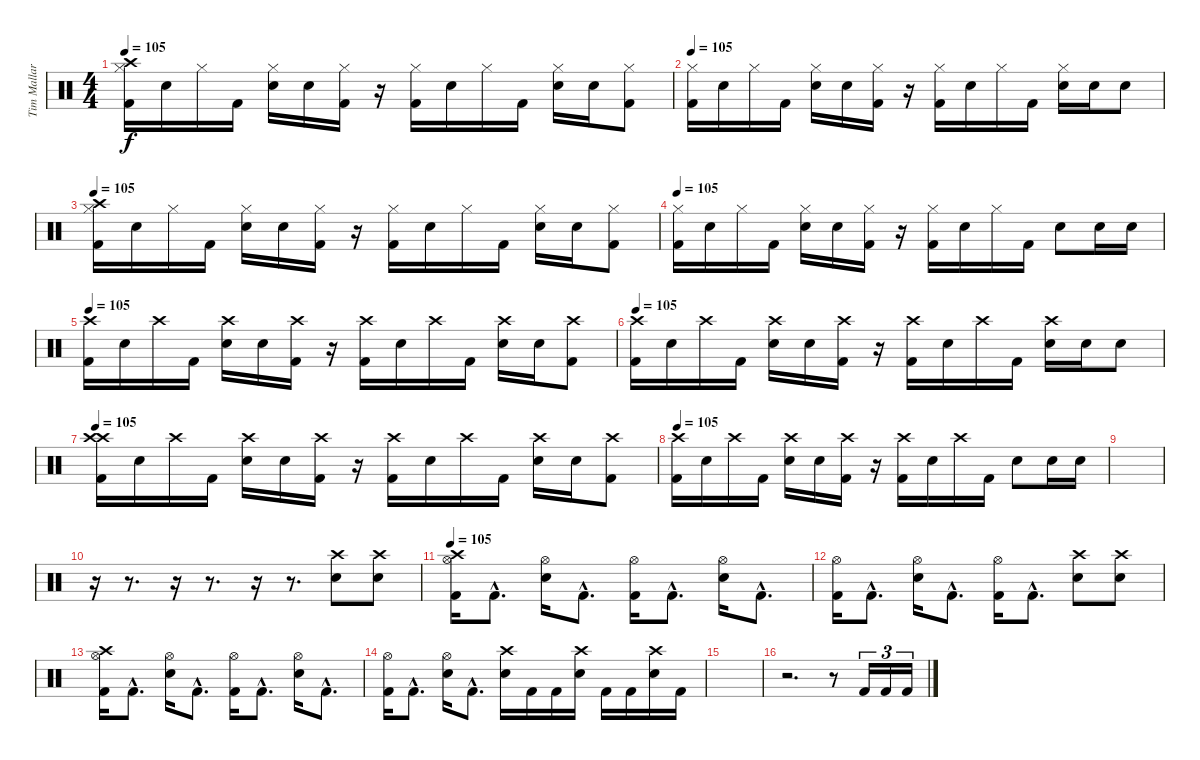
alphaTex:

\track ("Tim Mallare" "Tim Mallar") {instrument percussion}
\staff {score}
\articulation defaults
\ts (4 4)
\tempo 105
\clef neutral
\ks c
("Crash high (hit)" "Hi-Hat (closed)" "Kick (hit) 2").16{dy f} "Electric Snare (hit)".16 "Hi-Hat (closed)".16 "Kick (hit) 2".16 ("Hi-Hat (closed)" "Electric Snare (hit)").16 "Electric Snare (hit)".16 ("Hi-Hat (closed)" "Kick (hit) 2").16 r.16 ("Hi-Hat (closed)" "Kick (hit) 2").16 "Electric Snare (hit)".16 "Hi-Hat (closed)".16 "Kick (hit) 2".16 ("Hi-Hat (closed)" "Electric Snare (hit)").16 "Electric Snare (hit)".16 ("Hi-Hat (closed)" "Kick (hit) 2").8 |
\tempo 105
("Hi-Hat (closed)" "Kick (hit) 2").16 "Electric Snare (hit)".16 "Hi-Hat (closed)".16 "Kick (hit) 2".16 ("Hi-Hat (closed)" "Electric Snare (hit)").16 "Electric Snare (hit)".16 ("Hi-Hat (closed)" "Kick (hit) 2").16 r.16 ("Hi-Hat (closed)" "Kick (hit) 2").16 "Electric Snare (hit)".16 "Hi-Hat (closed)".16 "Kick (hit) 2".16 ("Hi-Hat (closed)" "Electric Snare (hit)").16 "Electric Snare (hit)".16 "Electric Snare (hit)".8 |
\tempo 105
("Crash high (hit)" "Hi-Hat (closed)" "Kick (hit) 2").16 "Electric Snare (hit)".16 "Hi-Hat (closed)".16 "Kick (hit) 2".16 ("Hi-Hat (closed)" "Electric Snare (hit)").16 "Electric Snare (hit)".16 ("Hi-Hat (closed)" "Kick (hit) 2").16 r.16 ("Hi-Hat (closed)" "Kick (hit) 2").16 "Electric Snare (hit)".16 "Hi-Hat (closed)".16 "Kick (hit) 2".16 ("Hi-Hat (closed)" "Electric Snare (hit)").16 "Electric Snare (hit)".16 ("Hi-Hat (closed)" "Kick (hit) 2").8 |
\tempo 105
("Hi-Hat (closed)" "Kick (hit) 2").16 "Electric Snare (hit)".16 "Hi-Hat (closed)".16 "Kick (hit) 2".16 ("Hi-Hat (closed)" "Electric Snare (hit)").16 "Electric Snare (hit)".16 ("Hi-Hat (closed)" "Kick (hit) 2").16 r.16 ("Hi-Hat (closed)" "Kick (hit) 2").16 "Electric Snare (hit)".16 "Hi-Hat (closed)".16 "Kick (hit) 2".16 "Electric Snare (hit)".8 "Electric Snare (hit)".16 "Electric Snare (hit)".16 |
\tempo 105
("Crash high (hit)" "Kick (hit) 2").16 "Electric Snare (hit)".16 "Crash high (hit)".16 "Kick (hit) 2".16 ("Crash high (hit)" "Electric Snare (hit)").16 "Electric Snare (hit)".16 ("Crash high (hit)" "Kick (hit) 2").16 r.16 ("Crash high (hit)" "Kick (hit) 2").16 "Electric Snare (hit)".16 "Crash high (hit)".16 "Kick (hit) 2".16 ("Crash high (hit)" "Electric Snare (hit)").16 "Electric Snare (hit)".16 ("Crash high (hit)" "Kick (hit) 2").8 |
\tempo 105
("Crash high (hit)" "Kick (hit) 2").16 "Electric Snare (hit)".16 "Crash high (hit)".16 "Kick (hit) 2".16 ("Crash high (hit)" "Electric Snare (hit)").16 "Electric Snare (hit)".16 ("Crash high (hit)" "Kick (hit) 2").16 r.16 ("Crash high (hit)" "Kick (hit) 2").16 "Electric Snare (hit)".16 "Crash high (hit)".16 "Kick (hit) 2".16 ("Crash high (hit)" "Electric Snare (hit)").16 "Electric Snare (hit)".16 "Electric Snare (hit)".8 |
\tempo 105
("Crash high (hit)" "Crash high (hit)" "Kick (hit) 2").16 "Electric Snare (hit)".16 "Crash high (hit)".16 "Kick (hit) 2".16 ("Crash high (hit)" "Electric Snare (hit)").16 "Electric Snare (hit)".16 ("Crash high (hit)" "Kick (hit) 2").16 r.16 ("Crash high (hit)" "Kick (hit) 2").16 "Electric Snare (hit)".16 "Crash high (hit)".16 "Kick (hit) 2".16 ("Crash high (hit)" "Electric Snare (hit)").16 "Electric Snare (hit)".16 ("Crash high (hit)" "Kick (hit) 2").8 |
\tempo 105
("Crash high (hit)" "Kick (hit) 2").16 "Electric Snare (hit)".16 "Crash high (hit)".16 "Kick (hit) 2".16 ("Crash high (hit)" "Electric Snare (hit)").16 "Electric Snare (hit)".16 ("Crash high (hit)" "Kick (hit) 2").16 r.16 ("Crash high (hit)" "Kick (hit) 2").16 "Electric Snare (hit)".16 "Crash high (hit)".16 "Kick (hit) 2".16 "Electric Snare (hit)".8 "Electric Snare (hit)".16 "Electric Snare (hit)".16 |
|
r.16 r.8{d} r.16 r.8{d} r.16 r.8{d} ("Crash high (hit)" "Electric Snare (hit)").8 ("Crash high (hit)" "Electric Snare (hit)").8 |
\tempo 105
("Crash high (hit)" "Hi-Hat (open)" "Kick (hit) 2").16 "Kick (hit) 2"{hac}.8{d} ("Hi-Hat (open)" "Electric Snare (hit)").16 "Kick (hit) 2"{hac}.8{d} ("Hi-Hat (open)" "Kick (hit) 2").16 "Kick (hit) 2"{hac}.8{d} ("Hi-Hat (open)" "Electric Snare (hit)").16 "Kick (hit) 2"{hac}.8{d} |
("Hi-Hat (open)" "Kick (hit) 2").16 "Kick (hit) 2"{hac}.8{d} ("Hi-Hat (open)" "Electric Snare (hit)").16 "Kick (hit) 2"{hac}.8{d} ("Hi-Hat (open)" "Kick (hit) 2").16 "Kick (hit) 2"{hac}.8{d} ("Crash high (hit)" "Electric Snare (hit)").8 ("Crash high (hit)" "Electric Snare (hit)").8 |
("Crash high (hit)" "Hi-Hat (open)" "Kick (hit) 2").16 "Kick (hit) 2"{hac}.8{d} ("Hi-Hat (open)" "Electric Snare (hit)").16 "Kick (hit) 2"{hac}.8{d} ("Hi-Hat (open)" "Kick (hit) 2").16 "Kick (hit) 2"{hac}.8{d} ("Hi-Hat (open)" "Electric Snare (hit)").16 "Kick (hit) 2"{hac}.8{d} |
("Hi-Hat (open)" "Kick (hit) 2").16 "Kick (hit) 2"{hac}.8{d} ("Hi-Hat (open)" "Electric Snare (hit)").16 "Kick (hit) 2"{hac}.8{d} ("Crash high (hit)" "Electric Snare (hit)").16 "Kick (hit) 2".16 "Kick (hit) 2".16 ("Crash high (hit)" "Electric Snare (hit)").16 "Kick (hit) 2".16 "Kick (hit) 2".16 ("Crash high (hit)" "Electric Snare (hit)").16 "Kick (hit) 2".16 |
|
r.2{d} r.8 "Kick (hit) 2".16{tu (3 2)} "Kick (hit) 2".16{tu (3 2)} "Kick (hit) 2".16{tu (3 2)}
